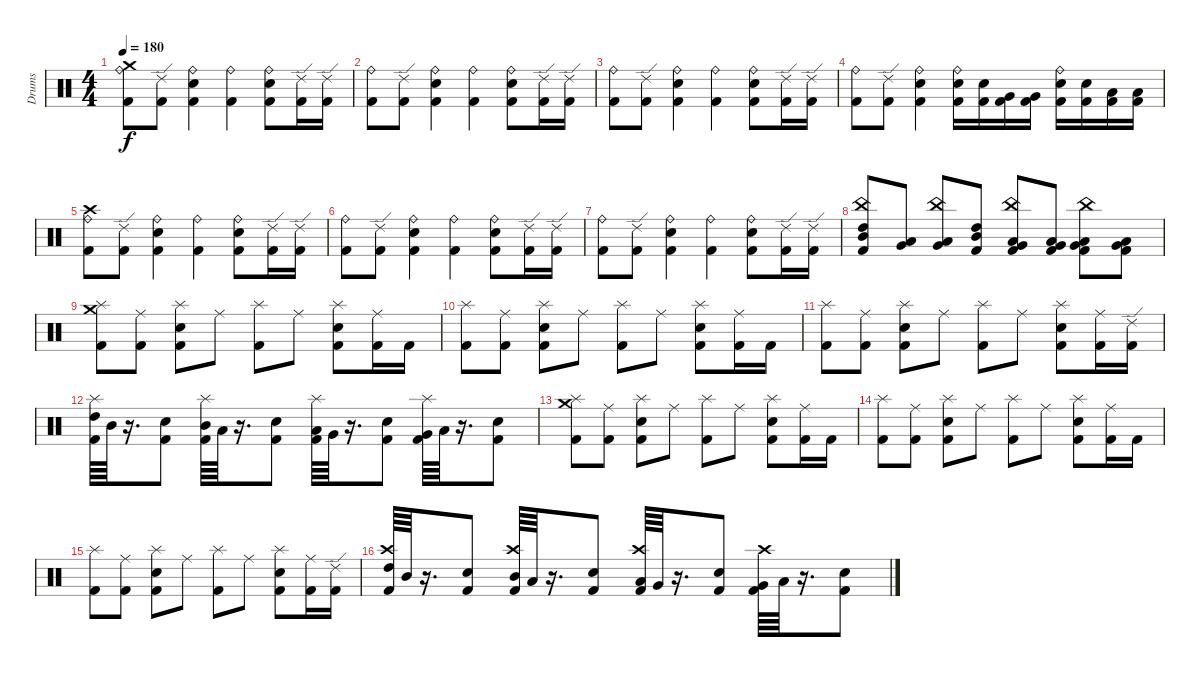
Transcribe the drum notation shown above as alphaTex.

\track ("Drums" "Drums") {instrument percussion}
\staff {score}
\articulation defaults
\ts (4 4)
\tempo 180
\clef neutral
\ks c
("Ride (bell)" "Crash medium (hit)" "Kick (hit) 2").8{dy f} ("Ride (edge) 2" "Kick (hit) 2").8 ("Ride (bell)" "Snare (hit) 2" "Kick (hit) 2").4 ("Ride (bell)" "Kick (hit) 2").4 ("Ride (bell)" "Snare (hit) 2" "Kick (hit) 2").8 ("Ride (edge) 2" "Kick (hit) 2").16 ("Ride (edge) 2" "Kick (hit) 2").16 |
("Ride (bell)" "Kick (hit) 2").8 ("Ride (edge) 2" "Kick (hit) 2").8 ("Ride (bell)" "Snare (hit) 2" "Kick (hit) 2").4 ("Ride (bell)" "Kick (hit) 2").4 ("Ride (bell)" "Snare (hit) 2" "Kick (hit) 2").8 ("Ride (edge) 2" "Kick (hit) 2").16 ("Ride (edge) 2" "Kick (hit) 2").16 |
("Ride (bell)" "Kick (hit) 2").8 ("Ride (edge) 2" "Kick (hit) 2").8 ("Ride (bell)" "Snare (hit) 2" "Kick (hit) 2").4 ("Ride (bell)" "Kick (hit) 2").4 ("Ride (bell)" "Snare (hit) 2" "Kick (hit) 2").8 ("Ride (edge) 2" "Kick (hit) 2").16 ("Ride (edge) 2" "Kick (hit) 2").16 |
("Ride (bell)" "Kick (hit) 2").8 ("Ride (edge) 2" "Kick (hit) 2").8 ("Ride (bell)" "Snare (hit) 2" "Kick (hit) 2").4 ("Ride (bell)" "Snare (hit) 2" "Kick (hit) 2").16 ("Snare (hit) 2" "Kick (hit) 2").16 ("Very Low Tom (hit)" "Kick (hit) 2").16 ("Very Low Tom (hit)" "Kick (hit) 2").16 ("Ride (bell)" "Snare (hit) 2" "Kick (hit) 2").16 ("Snare (hit) 2" "Kick (hit) 2").16 ("Low Floor Tom (hit)" "Kick (hit) 2").16 ("Low Floor Tom (hit)" "Kick (hit) 2").16 |
("Ride (bell)" "Crash high (hit)" "Kick (hit) 2").8 ("Ride (edge) 2" "Kick (hit) 2").8 ("Ride (bell)" "Snare (hit) 2" "Kick (hit) 2").4 ("Ride (bell)" "Kick (hit) 2").4 ("Ride (bell)" "Snare (hit) 2" "Kick (hit) 2").8 ("Ride (edge) 2" "Kick (hit) 2").16 ("Ride (edge) 2" "Kick (hit) 2").16 |
("Ride (bell)" "Kick (hit) 2").8 ("Ride (edge) 2" "Kick (hit) 2").8 ("Ride (bell)" "Snare (hit) 2" "Kick (hit) 2").4 ("Ride (bell)" "Kick (hit) 2").4 ("Ride (bell)" "Snare (hit) 2" "Kick (hit) 2").8 ("Ride (edge) 2" "Kick (hit) 2").16 ("Ride (edge) 2" "Kick (hit) 2").16 |
("Ride (bell)" "Kick (hit) 2").8 ("Ride (edge) 2" "Kick (hit) 2").8 ("Ride (bell)" "Snare (hit) 2" "Kick (hit) 2").4 ("Ride (bell)" "Kick (hit) 2").4 ("Ride (bell)" "Snare (hit) 2" "Kick (hit) 2").8 ("Ride (edge) 2" "Kick (hit) 2").16 ("Ride (edge) 2" "Kick (hit) 2").16 |
("China (hit)" "High Tom (hit)" "Mid Tom (hit)" "Kick (hit) 2").8 ("Low Tom (hit)" "Very Low Tom (hit)").8 ("China (hit)" "Low Tom (hit)" "Very Low Tom (hit)").8 ("High Tom (hit)" "Mid Tom (hit)" "Kick (hit) 2").8 ("China (hit)" "Low Tom (hit)" "Very Low Tom (hit)" "Kick (hit) 2").8 ("Low Tom (hit)" "Very Low Tom (hit)" "Kick (hit) 2").8 ("China (hit)" "Low Floor Tom (hit)" "Very Low Tom (hit)" "Kick (hit) 2").8 ("Low Tom (hit)" "Very Low Tom (hit)" "Kick (hit) 2").8 |
("Splash (hit)" "Crash medium (hit)" "Kick (hit) 2").8 ("Ride (middle)" "Kick (hit) 2").8 ("Splash (hit)" "Snare (hit) 2" "Kick (hit) 2").8 "Ride (middle)".8 ("Splash (hit)" "Kick (hit) 2").8 "Ride (middle)".8 ("Splash (hit)" "Snare (hit) 2" "Kick (hit) 2").8 ("Ride (middle)" "Kick (hit) 2").16 "Kick (hit) 2".16 |
("Splash (hit)" "Kick (hit) 2").8 ("Ride (middle)" "Kick (hit) 2").8 ("Splash (hit)" "Snare (hit) 2" "Kick (hit) 2").8 "Ride (middle)".8 ("Splash (hit)" "Kick (hit) 2").8 "Ride (middle)".8 ("Splash (hit)" "Snare (hit) 2" "Kick (hit) 2").8 ("Ride (middle)" "Kick (hit) 2").16 "Kick (hit) 2".16 |
("Splash (hit)" "Kick (hit) 2").8 ("Ride (middle)" "Kick (hit) 2").8 ("Splash (hit)" "Snare (hit) 2" "Kick (hit) 2").8 "Ride (middle)".8 ("Splash (hit)" "Kick (hit) 2").8 "Ride (middle)".8 ("Splash (hit)" "Snare (hit) 2" "Kick (hit) 2").8 ("Ride (middle)" "Kick (hit) 2").16 ("Ride (edge) 2" "Kick (hit) 2").16 |
("Splash (hit)" "High Tom (hit)" "Kick (hit) 2").64 "Mid Tom (hit)".64 r.16{d} ("Snare (hit) 2" "Kick (hit) 2").8 ("Splash (hit)" "Mid Tom (hit)" "Kick (hit) 2").64 "Low Tom (hit)".64 r.16{d} ("Snare (hit) 2" "Kick (hit) 2").8 ("Splash (hit)" "Low Tom (hit)" "Kick (hit) 2").64 "Very Low Tom (hit)".64 r.16{d} ("Snare (hit) 2" "Kick (hit) 2").8 ("Splash (hit)" "Very Low Tom (hit)" "Kick (hit) 2").64 "Low Floor Tom (hit)".64 r.16{d} ("Snare (hit) 2" "Kick (hit) 2").8 |
("Splash (hit)" "Crash medium (hit)" "Kick (hit) 2").8 ("Ride (middle)" "Kick (hit) 2").8 ("Splash (hit)" "Snare (hit) 2" "Kick (hit) 2").8 "Ride (middle)".8 ("Splash (hit)" "Kick (hit) 2").8 "Ride (middle)".8 ("Splash (hit)" "Snare (hit) 2" "Kick (hit) 2").8 ("Ride (middle)" "Kick (hit) 2").16 "Kick (hit) 2".16 |
("Splash (hit)" "Kick (hit) 2").8 ("Ride (middle)" "Kick (hit) 2").8 ("Splash (hit)" "Snare (hit) 2" "Kick (hit) 2").8 "Ride (middle)".8 ("Splash (hit)" "Kick (hit) 2").8 "Ride (middle)".8 ("Splash (hit)" "Snare (hit) 2" "Kick (hit) 2").8 ("Ride (middle)" "Kick (hit) 2").16 "Kick (hit) 2".16 |
("Splash (hit)" "Kick (hit) 2").8 ("Ride (middle)" "Kick (hit) 2").8 ("Splash (hit)" "Snare (hit) 2" "Kick (hit) 2").8 "Ride (middle)".8 ("Splash (hit)" "Kick (hit) 2").8 "Ride (middle)".8 ("Splash (hit)" "Snare (hit) 2" "Kick (hit) 2").8 ("Ride (middle)" "Kick (hit) 2").16 ("Ride (edge) 2" "Kick (hit) 2").16 |
("Crash high (hit)" "High Tom (hit)" "Kick (hit) 2").64 "Mid Tom (hit)".64 r.16{d} ("Snare (hit) 2" "Kick (hit) 2").8 ("Crash high (hit)" "Mid Tom (hit)" "Kick (hit) 2").64 "Low Tom (hit)".64 r.16{d} ("Snare (hit) 2" "Kick (hit) 2").8 ("Crash high (hit)" "Low Tom (hit)" "Kick (hit) 2").64 "Very Low Tom (hit)".64 r.16{d} ("Snare (hit) 2" "Kick (hit) 2").8 ("Crash high (hit)" "Very Low Tom (hit)" "Kick (hit) 2").64 "Low Floor Tom (hit)".64 r.16{d} ("Snare (hit) 2" "Kick (hit) 2").8
